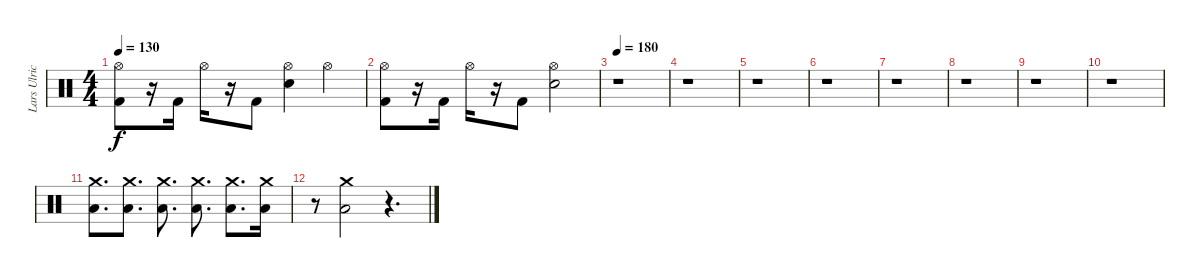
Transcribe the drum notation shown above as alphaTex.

\track ("Lars Ulrich" "Lars Ulric") {instrument percussion}
\staff {score}
\articulation defaults
\ts (4 4)
\tempo 130
\clef neutral
\ks c
("Hi-Hat (open)" "Kick (hit) 2").8{dy f} r.16 "Kick (hit) 2".16 "Hi-Hat (open)".16 r.16 "Kick (hit) 2".8 ("Hi-Hat (open)" "Electric Snare (hit)").4 "Hi-Hat (open)".4 |
("Hi-Hat (open)" "Kick (hit) 2").8 r.16 "Kick (hit) 2".16 "Hi-Hat (open)".16 r.16 "Kick (hit) 2".8 ("Hi-Hat (open)" "Electric Snare (hit)").2 |
\tempo 180
r.1 |
r.1 |
r.1 |
r.1 |
r.1 |
r.1 |
r.1 |
r.1 |
("Crash medium (hit)" "Low Floor Tom (hit)").8{d} ("Crash medium (hit)" "Low Floor Tom (hit)").8{d} ("Crash medium (hit)" "Low Floor Tom (hit)").8{d} ("Crash medium (hit)" "Low Floor Tom (hit)").8{d} ("Crash medium (hit)" "Low Floor Tom (hit)").8{d} ("Crash medium (hit)" "Low Floor Tom (hit)").16 |
r.8 ("Crash medium (hit)" "Low Floor Tom (hit)").2 r.4{d}
